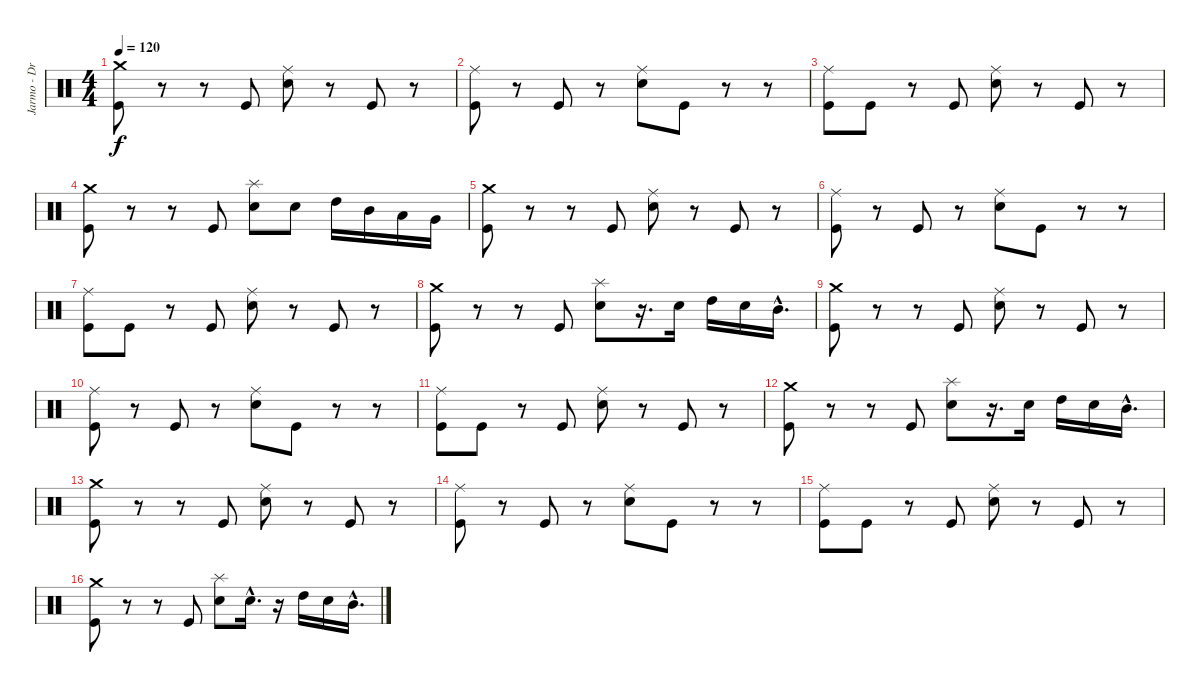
\track ("Jarmo - Drums" "Jarmo - Dr") {instrument percussion}
\staff {score}
\articulation defaults
\ts (4 4)
\tempo 120
\clef neutral
\ks c
("Kick (hit)" "Crash medium (hit)").8{dy f} r.8 r.8 "Kick (hit)".8 ("Electric Snare (hit)" "Ride (middle)").8 r.8 "Kick (hit)".8 r.8 |
("Kick (hit)" "Ride (middle)").8 r.8 "Kick (hit)".8 r.8 ("Electric Snare (hit)" "Ride (middle)").8 "Kick (hit)".8 r.8 r.8 |
("Kick (hit)" "Ride (middle)").8 "Kick (hit)".8 r.8 "Kick (hit)".8 ("Electric Snare (hit)" "Ride (middle)").8 r.8 "Kick (hit)".8 r.8 |
("Kick (hit)" "Crash medium (hit)").8 r.8 r.8 "Kick (hit)".8 ("Electric Snare (hit)" "Splash (hit)").8 "Electric Snare (hit)".8 "High Tom (hit)".16 "Mid Tom (hit)".16 "Low Tom (hit)".16 "Very Low Tom (hit)".16 |
("Kick (hit)" "Crash medium (hit)").8 r.8 r.8 "Kick (hit)".8 ("Electric Snare (hit)" "Ride (middle)").8 r.8 "Kick (hit)".8 r.8 |
("Kick (hit)" "Ride (middle)").8 r.8 "Kick (hit)".8 r.8 ("Electric Snare (hit)" "Ride (middle)").8 "Kick (hit)".8 r.8 r.8 |
("Kick (hit)" "Ride (middle)").8 "Kick (hit)".8 r.8 "Kick (hit)".8 ("Electric Snare (hit)" "Ride (middle)").8 r.8 "Kick (hit)".8 r.8 |
("Kick (hit)" "Crash medium (hit)").8 r.8 r.8 "Kick (hit)".8 ("Electric Snare (hit)" "Splash (hit)").8 r.16{d} "Electric Snare (hit)".16 "High Tom (hit)".16 "Electric Snare (hit)".16 "Mid Tom (hit)"{hac}.16{d} |
("Kick (hit)" "Crash medium (hit)").8 r.8 r.8 "Kick (hit)".8 ("Electric Snare (hit)" "Ride (middle)").8 r.8 "Kick (hit)".8 r.8 |
("Kick (hit)" "Ride (middle)").8 r.8 "Kick (hit)".8 r.8 ("Electric Snare (hit)" "Ride (middle)").8 "Kick (hit)".8 r.8 r.8 |
("Kick (hit)" "Ride (middle)").8 "Kick (hit)".8 r.8 "Kick (hit)".8 ("Electric Snare (hit)" "Ride (middle)").8 r.8 "Kick (hit)".8 r.8 |
("Kick (hit)" "Crash medium (hit)").8 r.8 r.8 "Kick (hit)".8 ("Electric Snare (hit)" "Splash (hit)").8 r.16{d} "Electric Snare (hit)".16 "High Tom (hit)".16 "Electric Snare (hit)".16 "Mid Tom (hit)"{hac}.16{d} |
("Kick (hit)" "Crash medium (hit)").8 r.8 r.8 "Kick (hit)".8 ("Electric Snare (hit)" "Ride (middle)").8 r.8 "Kick (hit)".8 r.8 |
("Kick (hit)" "Ride (middle)").8 r.8 "Kick (hit)".8 r.8 ("Electric Snare (hit)" "Ride (middle)").8 "Kick (hit)".8 r.8 r.8 |
("Kick (hit)" "Ride (middle)").8 "Kick (hit)".8 r.8 "Kick (hit)".8 ("Electric Snare (hit)" "Ride (middle)").8 r.8 "Kick (hit)".8 r.8 |
("Kick (hit)" "Crash medium (hit)").8 r.8 r.8 "Kick (hit)".8 ("Electric Snare (hit)" "Splash (hit)").8 "Electric Snare (hit)"{hac}.16{d} r.16 "High Tom (hit)".16 "Electric Snare (hit)".16 "Mid Tom (hit)"{hac}.16{d}
